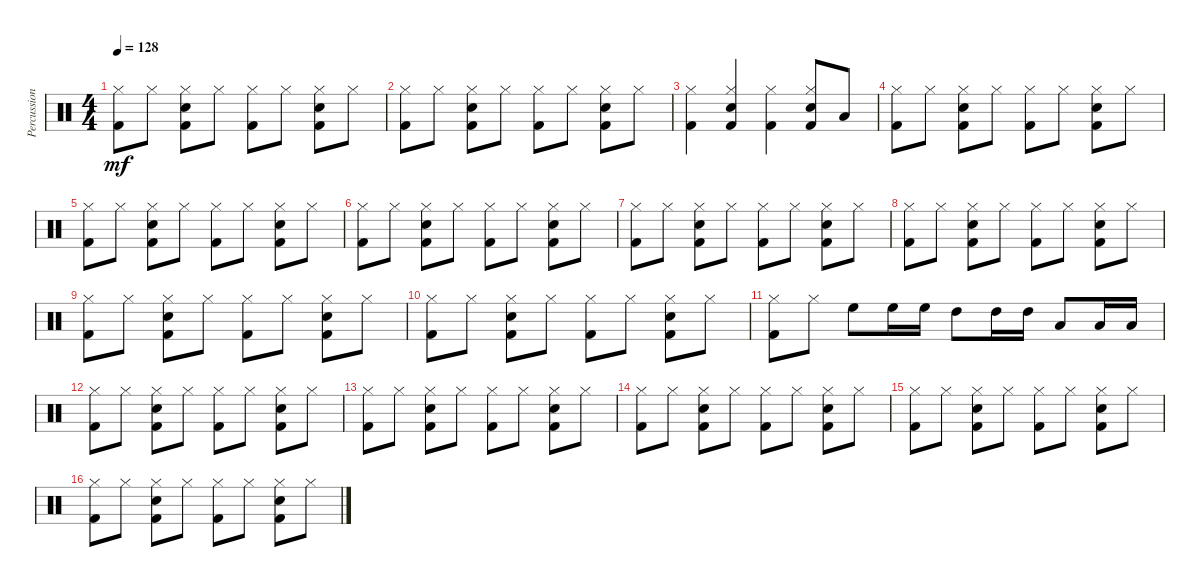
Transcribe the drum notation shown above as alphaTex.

\track ("Percussions" "Percussion") {instrument percussion}
\staff {score}
\articulation defaults
\ts (4 4)
\tempo 128
\clef neutral
\ks c
("Kick (hit) 2" "Hi-Hat (closed)").8{dy mf} "Hi-Hat (closed)".8 ("Kick (hit) 2" "Hi-Hat (closed)" "Snare (hit) 2").8 "Hi-Hat (closed)".8 ("Kick (hit) 2" "Hi-Hat (closed)").8 "Hi-Hat (closed)".8 ("Kick (hit) 2" "Hi-Hat (closed)" "Snare (hit) 2").8 "Hi-Hat (closed)".8 |
("Kick (hit) 2" "Hi-Hat (closed)").8 "Hi-Hat (closed)".8 ("Kick (hit) 2" "Hi-Hat (closed)" "Snare (hit) 2").8 "Hi-Hat (closed)".8 ("Kick (hit) 2" "Hi-Hat (closed)").8 "Hi-Hat (closed)".8 ("Kick (hit) 2" "Hi-Hat (closed)" "Snare (hit) 2").8 "Hi-Hat (closed)".8 |
("Kick (hit) 2" "Hi-Hat (closed)").4 ("Kick (hit) 2" "Hi-Hat (closed)" "Snare (hit) 2").4 ("Kick (hit) 2" "Hi-Hat (closed)").4 ("Kick (hit) 2" "Hi-Hat (closed)" "Snare (hit) 2").8 "Low Floor Tom (hit)".8 |
("Kick (hit) 2" "Hi-Hat (closed)").8 "Hi-Hat (closed)".8 ("Kick (hit) 2" "Hi-Hat (closed)" "Snare (hit) 2").8 "Hi-Hat (closed)".8 ("Kick (hit) 2" "Hi-Hat (closed)").8 "Hi-Hat (closed)".8 ("Kick (hit) 2" "Hi-Hat (closed)" "Snare (hit) 2").8 "Hi-Hat (closed)".8 |
("Kick (hit) 2" "Hi-Hat (closed)").8 "Hi-Hat (closed)".8 ("Kick (hit) 2" "Hi-Hat (closed)" "Snare (hit) 2").8 "Hi-Hat (closed)".8 ("Kick (hit) 2" "Hi-Hat (closed)").8 "Hi-Hat (closed)".8 ("Kick (hit) 2" "Hi-Hat (closed)" "Snare (hit) 2").8 "Hi-Hat (closed)".8 |
("Kick (hit) 2" "Hi-Hat (closed)").8 "Hi-Hat (closed)".8 ("Kick (hit) 2" "Hi-Hat (closed)" "Snare (hit) 2").8 "Hi-Hat (closed)".8 ("Kick (hit) 2" "Hi-Hat (closed)").8 "Hi-Hat (closed)".8 ("Kick (hit) 2" "Hi-Hat (closed)" "Snare (hit) 2").8 "Hi-Hat (closed)".8 |
("Kick (hit) 2" "Hi-Hat (closed)").8 "Hi-Hat (closed)".8 ("Kick (hit) 2" "Hi-Hat (closed)" "Snare (hit) 2").8 "Hi-Hat (closed)".8 ("Kick (hit) 2" "Hi-Hat (closed)").8 "Hi-Hat (closed)".8 ("Kick (hit) 2" "Hi-Hat (closed)" "Snare (hit) 2").8 "Hi-Hat (closed)".8 |
("Kick (hit) 2" "Hi-Hat (closed)").8 "Hi-Hat (closed)".8 ("Kick (hit) 2" "Hi-Hat (closed)" "Snare (hit) 2").8 "Hi-Hat (closed)".8 ("Kick (hit) 2" "Hi-Hat (closed)").8 "Hi-Hat (closed)".8 ("Kick (hit) 2" "Hi-Hat (closed)" "Snare (hit) 2").8 "Hi-Hat (closed)".8 |
("Kick (hit) 2" "Hi-Hat (closed)").8 "Hi-Hat (closed)".8 ("Kick (hit) 2" "Hi-Hat (closed)" "Snare (hit) 2").8 "Hi-Hat (closed)".8 ("Kick (hit) 2" "Hi-Hat (closed)").8 "Hi-Hat (closed)".8 ("Kick (hit) 2" "Hi-Hat (closed)" "Snare (hit) 2").8 "Hi-Hat (closed)".8 |
("Kick (hit) 2" "Hi-Hat (closed)").8 "Hi-Hat (closed)".8 ("Kick (hit) 2" "Hi-Hat (closed)" "Snare (hit) 2").8 "Hi-Hat (closed)".8 ("Kick (hit) 2" "Hi-Hat (closed)").8 "Hi-Hat (closed)".8 ("Kick (hit) 2" "Hi-Hat (closed)" "Snare (hit) 2").8 "Hi-Hat (closed)".8 |
("Kick (hit) 2" "Hi-Hat (closed)").8 "Hi-Hat (closed)".8 "High Floor Tom (hit)".8 "High Floor Tom (hit)".16 "High Floor Tom (hit)".16 "High Tom (hit)".8 "High Tom (hit)".16 "High Tom (hit)".16 "Low Tom (hit)".8 "Low Floor Tom (hit)".16 "Low Floor Tom (hit)".16 |
("Kick (hit) 2" "Hi-Hat (closed)").8 "Hi-Hat (closed)".8 ("Kick (hit) 2" "Hi-Hat (closed)" "Snare (hit) 2").8 "Hi-Hat (closed)".8 ("Kick (hit) 2" "Hi-Hat (closed)").8 "Hi-Hat (closed)".8 ("Kick (hit) 2" "Hi-Hat (closed)" "Snare (hit) 2").8 "Hi-Hat (closed)".8 |
("Kick (hit) 2" "Hi-Hat (closed)").8 "Hi-Hat (closed)".8 ("Kick (hit) 2" "Hi-Hat (closed)" "Snare (hit) 2").8 "Hi-Hat (closed)".8 ("Kick (hit) 2" "Hi-Hat (closed)").8 "Hi-Hat (closed)".8 ("Kick (hit) 2" "Hi-Hat (closed)" "Snare (hit) 2").8 "Hi-Hat (closed)".8 |
("Kick (hit) 2" "Hi-Hat (closed)").8 "Hi-Hat (closed)".8 ("Kick (hit) 2" "Hi-Hat (closed)" "Snare (hit) 2").8 "Hi-Hat (closed)".8 ("Kick (hit) 2" "Hi-Hat (closed)").8 "Hi-Hat (closed)".8 ("Kick (hit) 2" "Hi-Hat (closed)" "Snare (hit) 2").8 "Hi-Hat (closed)".8 |
("Kick (hit) 2" "Hi-Hat (closed)").8 "Hi-Hat (closed)".8 ("Kick (hit) 2" "Hi-Hat (closed)" "Snare (hit) 2").8 "Hi-Hat (closed)".8 ("Kick (hit) 2" "Hi-Hat (closed)").8 "Hi-Hat (closed)".8 ("Kick (hit) 2" "Hi-Hat (closed)" "Snare (hit) 2").8 "Hi-Hat (closed)".8 |
("Kick (hit) 2" "Hi-Hat (closed)").8 "Hi-Hat (closed)".8 ("Kick (hit) 2" "Hi-Hat (closed)" "Snare (hit) 2").8 "Hi-Hat (closed)".8 ("Kick (hit) 2" "Hi-Hat (closed)").8 "Hi-Hat (closed)".8 ("Kick (hit) 2" "Hi-Hat (closed)" "Snare (hit) 2").8 "Hi-Hat (closed)".8
